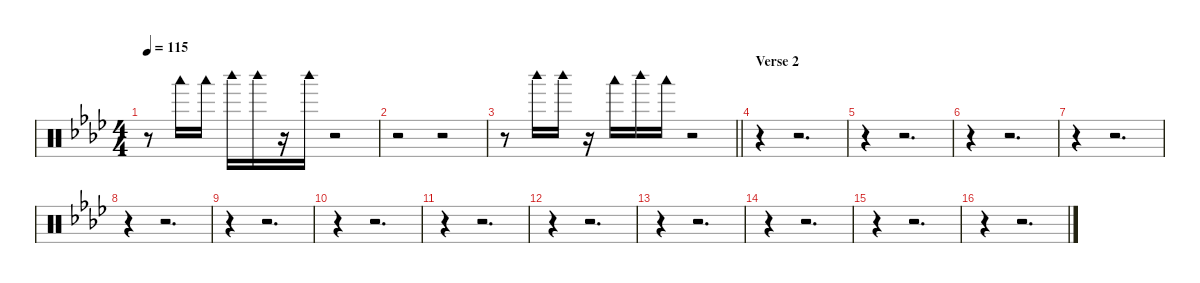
\defaultSystemsLayout 4
\hideDynamics
\bracketExtendMode nobrackets
\singleTrackTrackNamePolicy hidden
\multiTrackTrackNamePolicy hidden
\firstSystemTrackNameMode fullname
\firstSystemTrackNameOrientation horizontal
\otherSystemsTrackNameOrientation horizontal
\track ("Percussion" "drm.") {instrument percussion}
\staff {score}
\articulation defaults
\ts (4 4)
\tempo 115
\clef neutral
\ks ab
r.8{dy mp beam Down} "Woodblock low (hit)"{acc forcenatural}.16{beam Down} "Woodblock low (hit)"{acc forcenatural}.16{beam Down} "Woodblock high (hit)"{acc forcenatural}.16{beam Down} "Woodblock high (hit)"{acc forcenatural}.16{beam Down} r.16{beam Down} "Woodblock high (hit)"{acc forcenatural}.16{beam Down} r.2{beam Down} |
r.2{beam Down} r.2{beam Down} |
\barLineRight lightlight
r.8{beam Down} "Woodblock high (hit)"{acc forcenatural}.16{beam Down} "Woodblock high (hit)"{acc forcenatural}.16{beam Down} r.16{beam Down} "Woodblock low (hit)"{acc forcenatural}.16{beam Down} "Woodblock high (hit)"{acc forcenatural}.16{beam Down} "Woodblock low (hit)"{acc forcenatural}.16{beam Down} r.2{beam Down} |
\section ("" "Verse 2")
r.4{beam Down} r.2{d beam Down} |
r.4{beam Down} r.2{d beam Down} |
r.4{beam Down} r.2{d beam Down} |
r.4{beam Down} r.2{d beam Down} |
r.4{beam Down} r.2{d beam Down} |
r.4{beam Down} r.2{d beam Down} |
r.4{beam Down} r.2{d beam Down} |
r.4{beam Down} r.2{d beam Down} |
r.4{beam Down} r.2{d beam Down} |
r.4{beam Down} r.2{d beam Down} |
r.4{beam Down} r.2{d beam Down} |
r.4{beam Down} r.2{d beam Down} |
r.4{beam Down} r.2{d beam Down}
